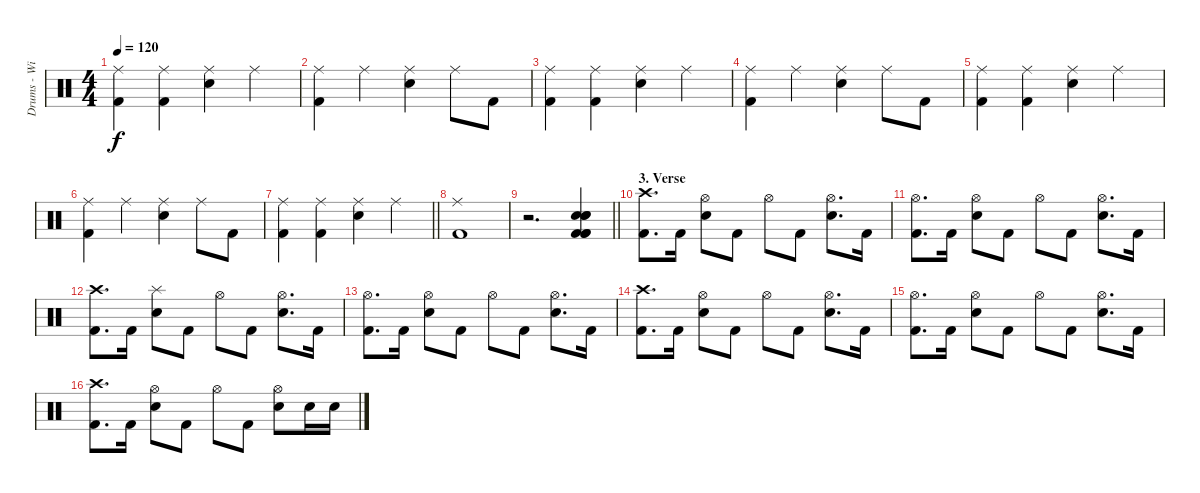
\track ("Drums - Willi Wurm" "Drums - Wi") {instrument percussion}
\staff {score}
\articulation defaults
\ts (4 4)
\tempo 120
\clef neutral
\ks c
("Ride (middle)" "Kick (hit) 2").4{dy f} ("Ride (middle)" "Kick (hit) 2").4 ("Ride (middle)" "Snare (hit) 2").4 "Ride (middle)".4 |
("Ride (middle)" "Kick (hit) 2").4 "Ride (middle)".4 ("Ride (middle)" "Snare (hit) 2").4 "Ride (middle)".8 "Kick (hit) 2".8 |
("Ride (middle)" "Kick (hit) 2").4 ("Ride (middle)" "Kick (hit) 2").4 ("Ride (middle)" "Snare (hit) 2").4 "Ride (middle)".4 |
("Ride (middle)" "Kick (hit) 2").4 "Ride (middle)".4 ("Ride (middle)" "Snare (hit) 2").4 "Ride (middle)".8 "Kick (hit) 2".8 |
("Ride (middle)" "Kick (hit) 2").4 ("Ride (middle)" "Kick (hit) 2").4 ("Ride (middle)" "Snare (hit) 2").4 "Ride (middle)".4 |
("Ride (middle)" "Kick (hit) 2").4 "Ride (middle)".4 ("Ride (middle)" "Snare (hit) 2").4 "Ride (middle)".8 "Kick (hit) 2".8 |
\barLineRight lightlight
("Ride (middle)" "Kick (hit) 2").4 ("Ride (middle)" "Kick (hit) 2").4 ("Ride (middle)" "Snare (hit) 2").4 "Ride (middle)".4 |
("Ride (middle)" "Kick (hit) 2").1 |
\barLineRight lightlight
r.2{d} ("Snare (hit) 2" "Snare (hit) 2" "Snare (hit) 2" "Kick (hit) 2" "Kick (hit) 2" "Kick (hit) 2").4 |
\section ("" "3. Verse")
("Crash high (hit)" "Kick (hit) 2").8{d} "Kick (hit) 2".16 ("Hi-Hat (open)" "Snare (hit) 2").8 "Kick (hit) 2".8 "Hi-Hat (open)".8 "Kick (hit) 2".8 ("Hi-Hat (open)" "Snare (hit) 2").8{d} "Kick (hit) 2".16 |
("Hi-Hat (open)" "Kick (hit) 2").8{d} "Kick (hit) 2".16 ("Hi-Hat (open)" "Snare (hit) 2").8 "Kick (hit) 2".8 "Hi-Hat (open)".8 "Kick (hit) 2".8 ("Hi-Hat (open)" "Snare (hit) 2").8{d} "Kick (hit) 2".16 |
("Crash high (hit)" "Kick (hit) 2").8{d} "Kick (hit) 2".16 ("Splash (hit)" "Snare (hit) 2").8 "Kick (hit) 2".8 "Hi-Hat (open)".8 "Kick (hit) 2".8 ("Hi-Hat (open)" "Snare (hit) 2").8{d} "Kick (hit) 2".16 |
("Hi-Hat (open)" "Kick (hit) 2").8{d} "Kick (hit) 2".16 ("Hi-Hat (open)" "Snare (hit) 2").8 "Kick (hit) 2".8 "Hi-Hat (open)".8 "Kick (hit) 2".8 ("Hi-Hat (open)" "Snare (hit) 2").8{d} "Kick (hit) 2".16 |
("Crash high (hit)" "Kick (hit) 2").8{d} "Kick (hit) 2".16 ("Hi-Hat (open)" "Snare (hit) 2").8 "Kick (hit) 2".8 "Hi-Hat (open)".8 "Kick (hit) 2".8 ("Hi-Hat (open)" "Snare (hit) 2").8{d} "Kick (hit) 2".16 |
("Hi-Hat (open)" "Kick (hit) 2").8{d} "Kick (hit) 2".16 ("Hi-Hat (open)" "Snare (hit) 2").8 "Kick (hit) 2".8 "Hi-Hat (open)".8 "Kick (hit) 2".8 ("Hi-Hat (open)" "Snare (hit) 2").8{d} "Kick (hit) 2".16 |
("Crash high (hit)" "Kick (hit) 2").8{d} "Kick (hit) 2".16 ("Hi-Hat (open)" "Snare (hit) 2").8 "Kick (hit) 2".8 "Hi-Hat (open)".8 "Kick (hit) 2".8 ("Hi-Hat (open)" "Snare (hit) 2").8 "Snare (hit) 2".16 "Snare (hit) 2".16
